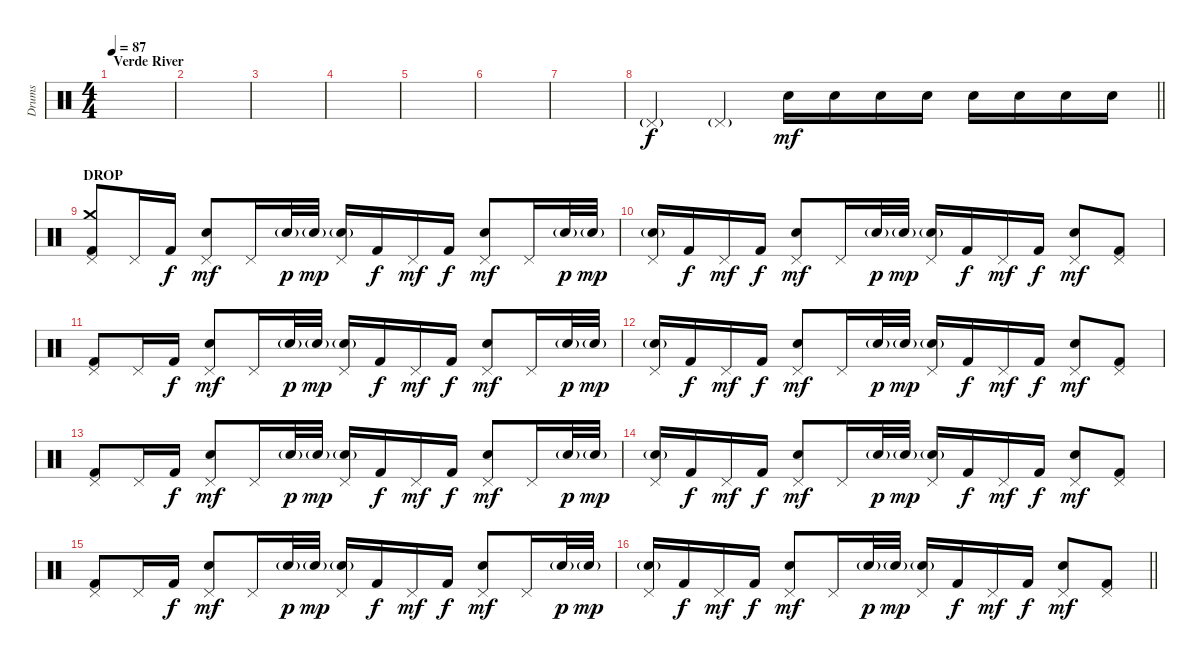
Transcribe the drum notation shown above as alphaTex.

\track ("Drums" "Drums") {instrument percussion}
\staff {score}
\articulation defaults
\ts (4 4)
\section ("" "Verde River")
\tempo 87
\clef neutral
\ks c
|
|
|
|
|
|
|
\barLineRight lightlight "Pedal Hi-Hat (hit)"{g}.4 "Pedal Hi-Hat (hit)"{g}.4 "Electric Snare (hit)".16{dy mf} "Electric Snare (hit)".16 "Electric Snare (hit)".16 "Electric Snare (hit)".16 "Electric Snare (hit)".16 "Electric Snare (hit)".16 "Electric Snare (hit)".16 "Electric Snare (hit)".16
|
\section ("" "DROP")
("Pedal Hi-Hat (hit)" "Crash medium (hit)" "Kick (hit) 2").8 "Pedal Hi-Hat (hit)".16 "Kick (hit) 2".16{dy f} ("Pedal Hi-Hat (hit)" "Electric Snare (hit)").8{dy mf} "Pedal Hi-Hat (hit)".16 "Electric Snare (hit)"{g}.32{dy p} "Electric Snare (hit)"{g}.32{dy mp} ("Pedal Hi-Hat (hit)" "Electric Snare (hit)"{g}).16 "Kick (hit) 2".16{dy f} "Pedal Hi-Hat (hit)".16{dy mf} "Kick (hit) 2".16{dy f} ("Pedal Hi-Hat (hit)" "Electric Snare (hit)").8{dy mf} "Pedal Hi-Hat (hit)".16 "Electric Snare (hit)"{g}.32{dy p} "Electric Snare (hit)"{g}.32{dy mp} |
("Pedal Hi-Hat (hit)" "Electric Snare (hit)"{g}).16 "Kick (hit) 2".16{dy f} "Pedal Hi-Hat (hit)".16{dy mf} "Kick (hit) 2".16{dy f} ("Pedal Hi-Hat (hit)" "Electric Snare (hit)").8{dy mf} "Pedal Hi-Hat (hit)".16 "Electric Snare (hit)"{g}.32{dy p} "Electric Snare (hit)"{g}.32{dy mp} ("Pedal Hi-Hat (hit)" "Electric Snare (hit)"{g}).16 "Kick (hit) 2".16{dy f} "Pedal Hi-Hat (hit)".16{dy mf} "Kick (hit) 2".16{dy f} ("Pedal Hi-Hat (hit)" "Electric Snare (hit)").8{dy mf} ("Pedal Hi-Hat (hit)" "Kick (hit) 2").8 |
("Pedal Hi-Hat (hit)" "Kick (hit) 2").8 "Pedal Hi-Hat (hit)".16 "Kick (hit) 2".16{dy f} ("Pedal Hi-Hat (hit)" "Electric Snare (hit)").8{dy mf} "Pedal Hi-Hat (hit)".16 "Electric Snare (hit)"{g}.32{dy p} "Electric Snare (hit)"{g}.32{dy mp} ("Pedal Hi-Hat (hit)" "Electric Snare (hit)"{g}).16 "Kick (hit) 2".16{dy f} "Pedal Hi-Hat (hit)".16{dy mf} "Kick (hit) 2".16{dy f} ("Pedal Hi-Hat (hit)" "Electric Snare (hit)").8{dy mf} "Pedal Hi-Hat (hit)".16 "Electric Snare (hit)"{g}.32{dy p} "Electric Snare (hit)"{g}.32{dy mp} |
("Pedal Hi-Hat (hit)" "Electric Snare (hit)"{g}).16 "Kick (hit) 2".16{dy f} "Pedal Hi-Hat (hit)".16{dy mf} "Kick (hit) 2".16{dy f} ("Pedal Hi-Hat (hit)" "Electric Snare (hit)").8{dy mf} "Pedal Hi-Hat (hit)".16 "Electric Snare (hit)"{g}.32{dy p} "Electric Snare (hit)"{g}.32{dy mp} ("Pedal Hi-Hat (hit)" "Electric Snare (hit)"{g}).16 "Kick (hit) 2".16{dy f} "Pedal Hi-Hat (hit)".16{dy mf} "Kick (hit) 2".16{dy f} ("Pedal Hi-Hat (hit)" "Electric Snare (hit)").8{dy mf} ("Pedal Hi-Hat (hit)" "Kick (hit) 2").8 |
("Pedal Hi-Hat (hit)" "Kick (hit) 2").8 "Pedal Hi-Hat (hit)".16 "Kick (hit) 2".16{dy f} ("Pedal Hi-Hat (hit)" "Electric Snare (hit)").8{dy mf} "Pedal Hi-Hat (hit)".16 "Electric Snare (hit)"{g}.32{dy p} "Electric Snare (hit)"{g}.32{dy mp} ("Pedal Hi-Hat (hit)" "Electric Snare (hit)"{g}).16 "Kick (hit) 2".16{dy f} "Pedal Hi-Hat (hit)".16{dy mf} "Kick (hit) 2".16{dy f} ("Pedal Hi-Hat (hit)" "Electric Snare (hit)").8{dy mf} "Pedal Hi-Hat (hit)".16 "Electric Snare (hit)"{g}.32{dy p} "Electric Snare (hit)"{g}.32{dy mp} |
("Pedal Hi-Hat (hit)" "Electric Snare (hit)"{g}).16 "Kick (hit) 2".16{dy f} "Pedal Hi-Hat (hit)".16{dy mf} "Kick (hit) 2".16{dy f} ("Pedal Hi-Hat (hit)" "Electric Snare (hit)").8{dy mf} "Pedal Hi-Hat (hit)".16 "Electric Snare (hit)"{g}.32{dy p} "Electric Snare (hit)"{g}.32{dy mp} ("Pedal Hi-Hat (hit)" "Electric Snare (hit)"{g}).16 "Kick (hit) 2".16{dy f} "Pedal Hi-Hat (hit)".16{dy mf} "Kick (hit) 2".16{dy f} ("Pedal Hi-Hat (hit)" "Electric Snare (hit)").8{dy mf} ("Pedal Hi-Hat (hit)" "Kick (hit) 2").8 |
("Pedal Hi-Hat (hit)" "Kick (hit) 2").8 "Pedal Hi-Hat (hit)".16 "Kick (hit) 2".16{dy f} ("Pedal Hi-Hat (hit)" "Electric Snare (hit)").8{dy mf} "Pedal Hi-Hat (hit)".16 "Electric Snare (hit)"{g}.32{dy p} "Electric Snare (hit)"{g}.32{dy mp} ("Pedal Hi-Hat (hit)" "Electric Snare (hit)"{g}).16 "Kick (hit) 2".16{dy f} "Pedal Hi-Hat (hit)".16{dy mf} "Kick (hit) 2".16{dy f} ("Pedal Hi-Hat (hit)" "Electric Snare (hit)").8{dy mf} "Pedal Hi-Hat (hit)".16 "Electric Snare (hit)"{g}.32{dy p} "Electric Snare (hit)"{g}.32{dy mp} |
\barLineRight lightlight
("Pedal Hi-Hat (hit)" "Electric Snare (hit)"{g}).16 "Kick (hit) 2".16{dy f} "Pedal Hi-Hat (hit)".16{dy mf} "Kick (hit) 2".16{dy f} ("Pedal Hi-Hat (hit)" "Electric Snare (hit)").8{dy mf} "Pedal Hi-Hat (hit)".16 "Electric Snare (hit)"{g}.32{dy p} "Electric Snare (hit)"{g}.32{dy mp} ("Pedal Hi-Hat (hit)" "Electric Snare (hit)"{g}).16 "Kick (hit) 2".16{dy f} "Pedal Hi-Hat (hit)".16{dy mf} "Kick (hit) 2".16{dy f} ("Pedal Hi-Hat (hit)" "Electric Snare (hit)").8{dy mf} ("Pedal Hi-Hat (hit)" "Kick (hit) 2").8
